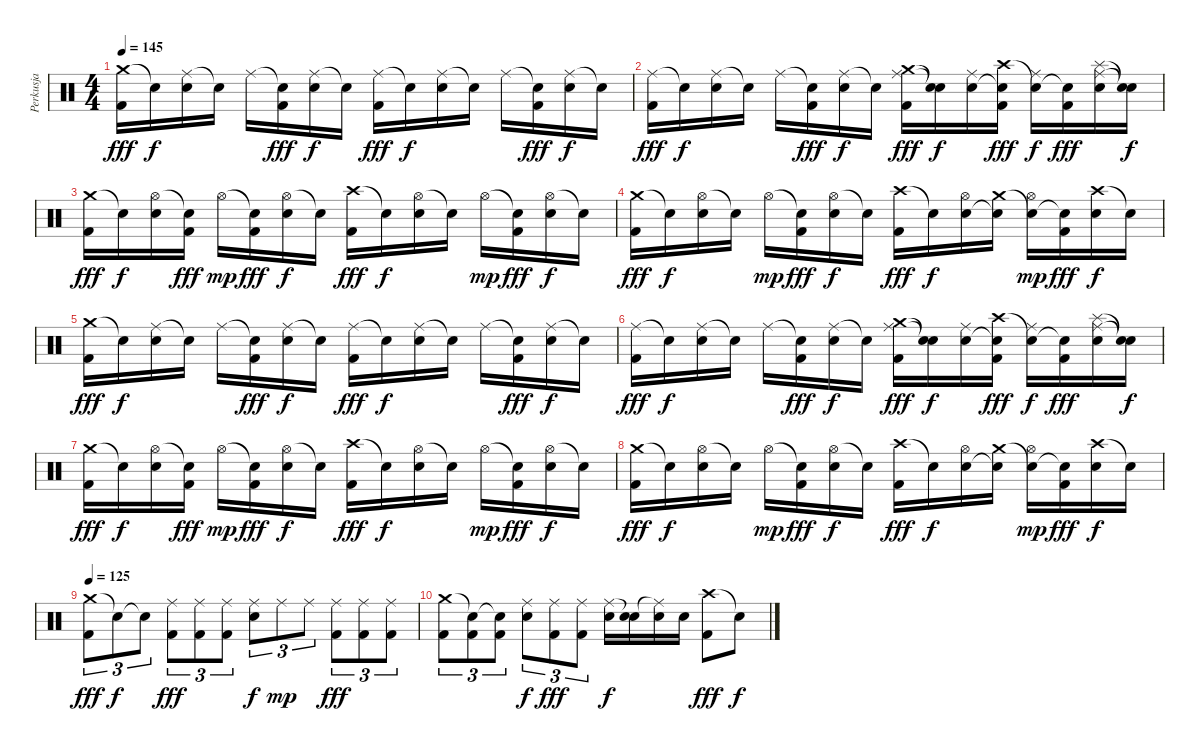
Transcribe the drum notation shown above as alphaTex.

\track ("Perkusja" "Perkusja") {instrument percussion}
\staff {score}
\articulation defaults
\ts (4 4)
\tempo 145
\clef neutral
\ks c
("Crash medium (hit)" "Kick (hit) 2").16{dy fff} "Snare (hit)"{t}.16{dy f} ("Ride (middle)" "Electric Snare (hit)").16 "Snare (hit)"{t}.16 "Ride (middle)".16 ("Snare (hit)"{t} "Kick (hit) 2").16{dy fff} ("Ride (middle)" "Electric Snare (hit)").16{dy f} "Snare (hit)"{t}.16 ("Ride (middle)" "Kick (hit) 2").16{dy fff} "Snare (hit)"{t}.16{dy f} ("Ride (middle)" "Electric Snare (hit)").16 "Snare (hit)"{t}.16 "Ride (middle)".16 ("Snare (hit)"{t} "Kick (hit) 2").16{dy fff} ("Ride (middle)" "Electric Snare (hit)").16{dy f} "Snare (hit)"{t}.16 |
("Ride (middle)" "Kick (hit) 2").16{dy fff} "Snare (hit)"{t}.16{dy f} ("Ride (middle)" "Electric Snare (hit)").16 "Snare (hit)"{t}.16 "Ride (middle)".16 ("Snare (hit)"{t} "Kick (hit) 2").16{dy fff} ("Ride (middle)" "Electric Snare (hit)").16{dy f} "Snare (hit)"{t}.16 ("Crash medium (hit)" "Ride (middle)" "Kick (hit) 2").16{dy fff} ("Snare (hit)"{t} "Snare (hit)"{t}).16{dy f} ("Ride (middle)" "Electric Snare (hit)").16 ("Crash high (hit)" "Snare (hit)"{t} "Kick (hit) 2").16{dy fff} ("Snare (hit)"{t} "Ride (middle)").16{dy f} ("Snare (hit)"{t} "Kick (hit) 2").16{dy fff} ("Splash (hit)" "Ride (middle)" "Electric Snare (hit)").16 ("Snare (hit)"{t} "Snare (hit)"{t}).16{dy f} |
("Crash medium (hit)" "Kick (hit) 2").16{dy fff} "Snare (hit)"{t}.16{dy f} ("Hi-Hat (open)" "Electric Snare (hit)").16 ("Snare (hit)"{t} "Kick (hit) 2").16{dy fff} "Hi-Hat (open)".16{dy mp} ("Snare (hit)"{t} "Kick (hit) 2").16{dy fff} ("Hi-Hat (open)" "Electric Snare (hit)").16{dy f} "Snare (hit)"{t}.16 ("Crash high (hit)" "Kick (hit) 2").16{dy fff} "Snare (hit)"{t}.16{dy f} ("Hi-Hat (open)" "Electric Snare (hit)").16 "Snare (hit)"{t}.16 "Hi-Hat (open)".16{dy mp} ("Snare (hit)"{t} "Kick (hit) 2").16{dy fff} ("Hi-Hat (open)" "Electric Snare (hit)").16{dy f} "Snare (hit)"{t}.16 |
("Crash medium (hit)" "Kick (hit) 2").16{dy fff} "Snare (hit)"{t}.16{dy f} ("Hi-Hat (open)" "Electric Snare (hit)").16 "Snare (hit)"{t}.16 "Hi-Hat (open)".16{dy mp} ("Snare (hit)"{t} "Kick (hit) 2").16{dy fff} ("Hi-Hat (open)" "Electric Snare (hit)").16{dy f} "Snare (hit)"{t}.16 ("Crash high (hit)" "Kick (hit) 2").16{dy fff} "Snare (hit)"{t}.16{dy f} ("Hi-Hat (open)" "Electric Snare (hit)").16 ("Crash medium (hit)" "Snare (hit)"{t}).16 ("Snare (hit)"{t} "Hi-Hat (open)").16{dy mp} ("Snare (hit)"{t} "Kick (hit) 2").16{dy fff} ("Crash high (hit)" "Electric Snare (hit)").16{dy f} "Snare (hit)"{t}.16 |
("Crash medium (hit)" "Kick (hit) 2").16{dy fff} "Snare (hit)"{t}.16{dy f} ("Ride (middle)" "Electric Snare (hit)").16 "Snare (hit)"{t}.16 "Ride (middle)".16 ("Snare (hit)"{t} "Kick (hit) 2").16{dy fff} ("Ride (middle)" "Electric Snare (hit)").16{dy f} "Snare (hit)"{t}.16 ("Ride (middle)" "Kick (hit) 2").16{dy fff} "Snare (hit)"{t}.16{dy f} ("Ride (middle)" "Electric Snare (hit)").16 "Snare (hit)"{t}.16 "Ride (middle)".16 ("Snare (hit)"{t} "Kick (hit) 2").16{dy fff} ("Ride (middle)" "Electric Snare (hit)").16{dy f} "Snare (hit)"{t}.16 |
("Ride (middle)" "Kick (hit) 2").16{dy fff} "Snare (hit)"{t}.16{dy f} ("Ride (middle)" "Electric Snare (hit)").16 "Snare (hit)"{t}.16 "Ride (middle)".16 ("Snare (hit)"{t} "Kick (hit) 2").16{dy fff} ("Ride (middle)" "Electric Snare (hit)").16{dy f} "Snare (hit)"{t}.16 ("Crash medium (hit)" "Ride (middle)" "Kick (hit) 2").16{dy fff} ("Snare (hit)"{t} "Snare (hit)"{t}).16{dy f} ("Ride (middle)" "Electric Snare (hit)").16 ("Crash high (hit)" "Snare (hit)"{t} "Kick (hit) 2").16{dy fff} ("Snare (hit)"{t} "Ride (middle)").16{dy f} ("Snare (hit)"{t} "Kick (hit) 2").16{dy fff} ("Splash (hit)" "Ride (middle)" "Electric Snare (hit)").16 ("Snare (hit)"{t} "Snare (hit)"{t}).16{dy f} |
("Crash medium (hit)" "Kick (hit) 2").16{dy fff} "Snare (hit)"{t}.16{dy f} ("Hi-Hat (open)" "Electric Snare (hit)").16 ("Snare (hit)"{t} "Kick (hit) 2").16{dy fff} "Hi-Hat (open)".16{dy mp} ("Snare (hit)"{t} "Kick (hit) 2").16{dy fff} ("Hi-Hat (open)" "Electric Snare (hit)").16{dy f} "Snare (hit)"{t}.16 ("Crash high (hit)" "Kick (hit) 2").16{dy fff} "Snare (hit)"{t}.16{dy f} ("Hi-Hat (open)" "Electric Snare (hit)").16 "Snare (hit)"{t}.16 "Hi-Hat (open)".16{dy mp} ("Snare (hit)"{t} "Kick (hit) 2").16{dy fff} ("Hi-Hat (open)" "Electric Snare (hit)").16{dy f} "Snare (hit)"{t}.16 |
("Crash medium (hit)" "Kick (hit) 2").16{dy fff} "Snare (hit)"{t}.16{dy f} ("Hi-Hat (open)" "Electric Snare (hit)").16 "Snare (hit)"{t}.16 "Hi-Hat (open)".16{dy mp} ("Snare (hit)"{t} "Kick (hit) 2").16{dy fff} ("Hi-Hat (open)" "Electric Snare (hit)").16{dy f} "Snare (hit)"{t}.16 ("Crash high (hit)" "Kick (hit) 2").16{dy fff} "Snare (hit)"{t}.16{dy f} ("Hi-Hat (open)" "Electric Snare (hit)").16 ("Crash medium (hit)" "Snare (hit)"{t}).16 ("Snare (hit)"{t} "Hi-Hat (open)").16{dy mp} ("Snare (hit)"{t} "Kick (hit) 2").16{dy fff} ("Crash high (hit)" "Electric Snare (hit)").16{dy f} "Snare (hit)"{t}.16 |
\tempo 125
("Crash medium (hit)" "Kick (hit) 2").8{tu (3 2) dy fff} "Snare (hit)"{t}.8{tu (3 2) dy f} "Snare (hit)"{t}.8{tu (3 2)} ("Ride (middle)" "Kick (hit) 2").8{tu (3 2) dy fff} ("Ride (middle)" "Kick (hit) 2").8{tu (3 2)} ("Ride (middle)" "Kick (hit) 2").8{tu (3 2)} ("Ride (middle)" "Electric Snare (hit)").8{tu (3 2) dy f} "Ride (middle)".8{tu (3 2) dy mp} "Ride (middle)".8{tu (3 2)} ("Ride (middle)" "Kick (hit) 2").8{tu (3 2) dy fff} ("Ride (middle)" "Kick (hit) 2").8{tu (3 2)} ("Ride (middle)" "Kick (hit) 2").8{tu (3 2)} |
("Crash medium (hit)" "Kick (hit) 2").8{tu (3 2)} ("Snare (hit)"{t} "Kick (hit) 2").8{tu (3 2)} ("Snare (hit)"{t} "Kick (hit) 2").8{tu (3 2)} ("Ride (middle)" "Electric Snare (hit)").8{tu (3 2) dy f} ("Ride (middle)" "Kick (hit) 2").8{tu (3 2) dy fff} ("Ride (middle)" "Kick (hit) 2").8{tu (3 2)} ("Ride (middle)" "Electric Snare (hit)").16{dy f} ("Snare (hit)"{t} "Electric Snare (hit)").16 ("Ride (middle)"{t} "Electric Snare (hit)").16 "Electric Snare (hit)".16 ("Crash high (hit)" "Kick (hit) 2").8{dy fff} "Snare (hit)"{t}.8{dy f}
